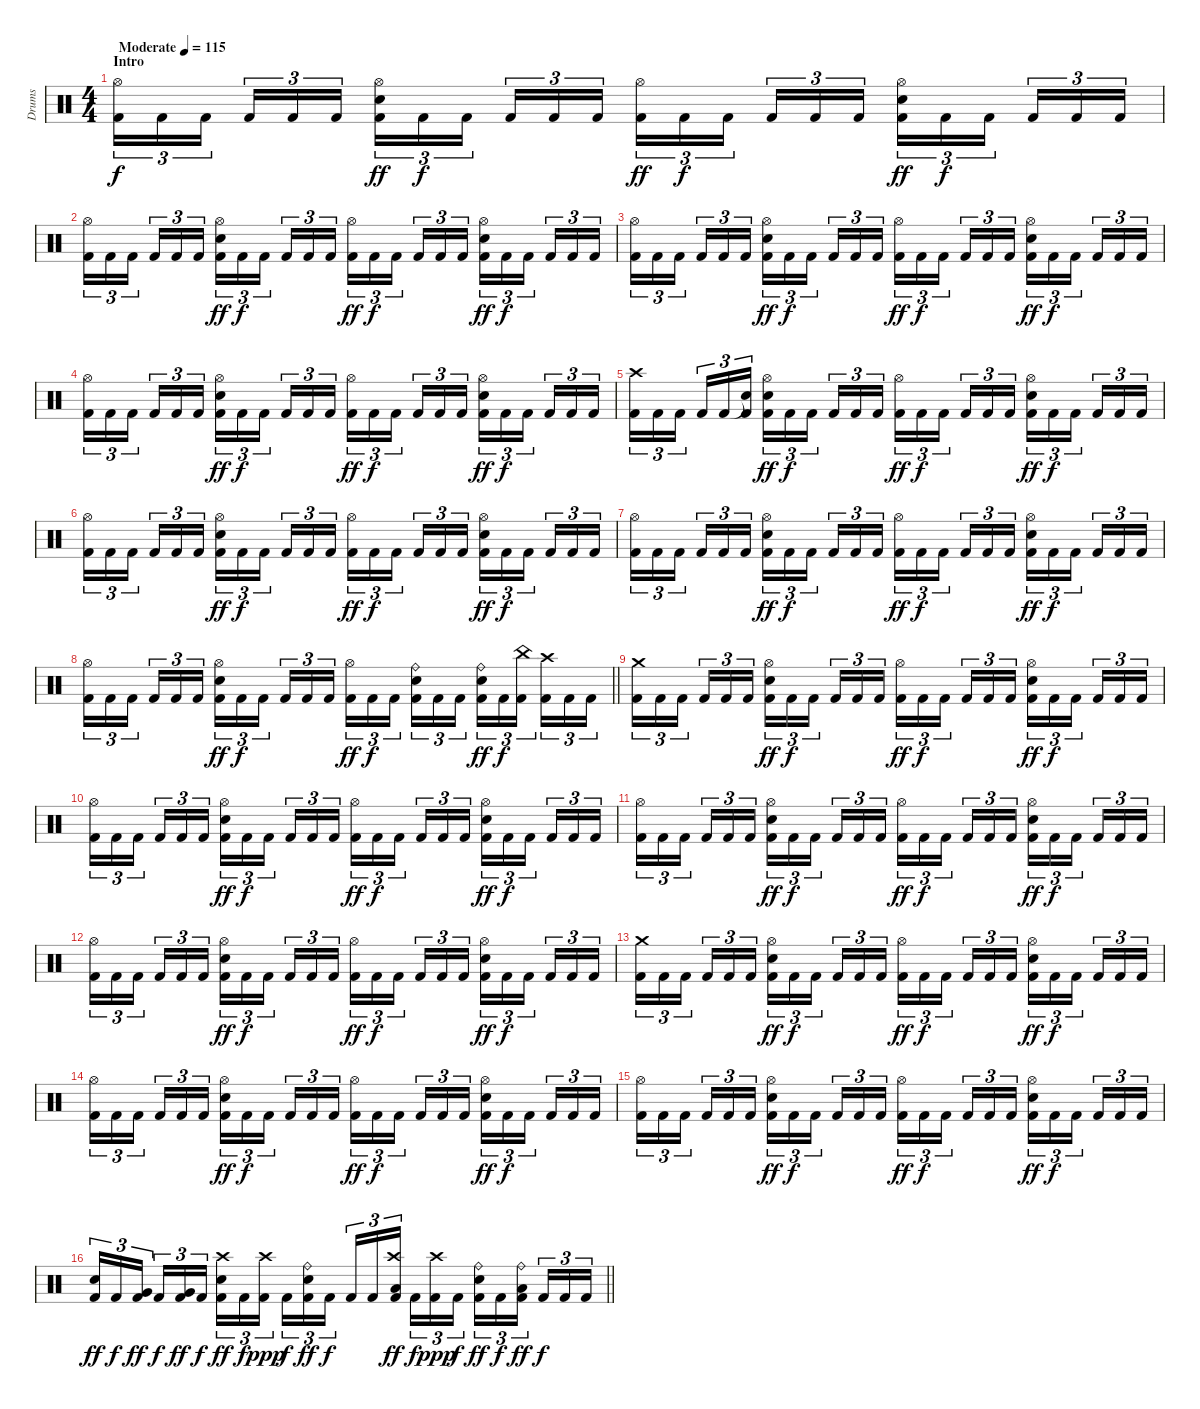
\track ("Drums" "Drums") {instrument percussion}
\staff {score}
\articulation defaults
\ts (4 4)
\section ("" "Intro")
\tempo (115 "Moderate")
\clef neutral
\ks c
("Hi-Hat (open)" "Kick (hit) 2").16{tu (3 2) dy f} "Kick (hit) 2".16{tu (3 2)} "Kick (hit) 2".16{tu (3 2) beam splitsecondary} "Kick (hit) 2".16{tu (3 2)} "Kick (hit) 2".16{tu (3 2)} "Kick (hit) 2".16{tu (3 2)} ("Hi-Hat (open)" "Electric Snare (hit)" "Kick (hit) 2").16{tu (3 2) dy ff} "Kick (hit) 2".16{tu (3 2) dy f} "Kick (hit) 2".16{tu (3 2) beam splitsecondary} "Kick (hit) 2".16{tu (3 2)} "Kick (hit) 2".16{tu (3 2)} "Kick (hit) 2".16{tu (3 2)} ("Hi-Hat (open)" "Kick (hit) 2").16{tu (3 2) dy ff} "Kick (hit) 2".16{tu (3 2) dy f} "Kick (hit) 2".16{tu (3 2) beam splitsecondary} "Kick (hit) 2".16{tu (3 2)} "Kick (hit) 2".16{tu (3 2)} "Kick (hit) 2".16{tu (3 2)} ("Hi-Hat (open)" "Electric Snare (hit)" "Kick (hit) 2").16{tu (3 2) dy ff} "Kick (hit) 2".16{tu (3 2) dy f} "Kick (hit) 2".16{tu (3 2) beam splitsecondary} "Kick (hit) 2".16{tu (3 2)} "Kick (hit) 2".16{tu (3 2)} "Kick (hit) 2".16{tu (3 2)} |
("Hi-Hat (open)" "Kick (hit) 2").16{tu (3 2)} "Kick (hit) 2".16{tu (3 2)} "Kick (hit) 2".16{tu (3 2) beam splitsecondary} "Kick (hit) 2".16{tu (3 2)} "Kick (hit) 2".16{tu (3 2)} "Kick (hit) 2".16{tu (3 2)} ("Hi-Hat (open)" "Electric Snare (hit)" "Kick (hit) 2").16{tu (3 2) dy ff} "Kick (hit) 2".16{tu (3 2) dy f} "Kick (hit) 2".16{tu (3 2) beam splitsecondary} "Kick (hit) 2".16{tu (3 2)} "Kick (hit) 2".16{tu (3 2)} "Kick (hit) 2".16{tu (3 2)} ("Hi-Hat (open)" "Kick (hit) 2").16{tu (3 2) dy ff} "Kick (hit) 2".16{tu (3 2) dy f} "Kick (hit) 2".16{tu (3 2) beam splitsecondary} "Kick (hit) 2".16{tu (3 2)} "Kick (hit) 2".16{tu (3 2)} "Kick (hit) 2".16{tu (3 2)} ("Hi-Hat (open)" "Electric Snare (hit)" "Kick (hit) 2").16{tu (3 2) dy ff} "Kick (hit) 2".16{tu (3 2) dy f} "Kick (hit) 2".16{tu (3 2) beam splitsecondary} "Kick (hit) 2".16{tu (3 2)} "Kick (hit) 2".16{tu (3 2)} "Kick (hit) 2".16{tu (3 2)} |
("Hi-Hat (open)" "Kick (hit) 2").16{tu (3 2)} "Kick (hit) 2".16{tu (3 2)} "Kick (hit) 2".16{tu (3 2) beam splitsecondary} "Kick (hit) 2".16{tu (3 2)} "Kick (hit) 2".16{tu (3 2)} "Kick (hit) 2".16{tu (3 2)} ("Hi-Hat (open)" "Electric Snare (hit)" "Kick (hit) 2").16{tu (3 2) dy ff} "Kick (hit) 2".16{tu (3 2) dy f} "Kick (hit) 2".16{tu (3 2) beam splitsecondary} "Kick (hit) 2".16{tu (3 2)} "Kick (hit) 2".16{tu (3 2)} "Kick (hit) 2".16{tu (3 2)} ("Hi-Hat (open)" "Kick (hit) 2").16{tu (3 2) dy ff} "Kick (hit) 2".16{tu (3 2) dy f} "Kick (hit) 2".16{tu (3 2) beam splitsecondary} "Kick (hit) 2".16{tu (3 2)} "Kick (hit) 2".16{tu (3 2)} "Kick (hit) 2".16{tu (3 2)} ("Hi-Hat (open)" "Electric Snare (hit)" "Kick (hit) 2").16{tu (3 2) dy ff} "Kick (hit) 2".16{tu (3 2) dy f} "Kick (hit) 2".16{tu (3 2) beam splitsecondary} "Kick (hit) 2".16{tu (3 2)} "Kick (hit) 2".16{tu (3 2)} "Kick (hit) 2".16{tu (3 2)} |
("Hi-Hat (open)" "Kick (hit) 2").16{tu (3 2)} "Kick (hit) 2".16{tu (3 2)} "Kick (hit) 2".16{tu (3 2) beam splitsecondary} "Kick (hit) 2".16{tu (3 2)} "Kick (hit) 2".16{tu (3 2)} "Kick (hit) 2".16{tu (3 2)} ("Hi-Hat (open)" "Electric Snare (hit)" "Kick (hit) 2").16{tu (3 2) dy ff} "Kick (hit) 2".16{tu (3 2) dy f} "Kick (hit) 2".16{tu (3 2) beam splitsecondary} "Kick (hit) 2".16{tu (3 2)} "Kick (hit) 2".16{tu (3 2)} "Kick (hit) 2".16{tu (3 2)} ("Hi-Hat (open)" "Kick (hit) 2").16{tu (3 2) dy ff} "Kick (hit) 2".16{tu (3 2) dy f} "Kick (hit) 2".16{tu (3 2) beam splitsecondary} "Kick (hit) 2".16{tu (3 2)} "Kick (hit) 2".16{tu (3 2)} "Kick (hit) 2".16{tu (3 2)} ("Hi-Hat (open)" "Electric Snare (hit)" "Kick (hit) 2").16{tu (3 2) dy ff} "Kick (hit) 2".16{tu (3 2) dy f} "Kick (hit) 2".16{tu (3 2) beam splitsecondary} "Kick (hit) 2".16{tu (3 2)} "Kick (hit) 2".16{tu (3 2)} "Kick (hit) 2".16{tu (3 2)} |
("Crash high (hit)" "Kick (hit) 2").16{tu (3 2)} "Kick (hit) 2".16{tu (3 2)} "Kick (hit) 2".16{tu (3 2) beam splitsecondary} "Kick (hit) 2".16{tu (3 2)} "Kick (hit) 2".16{tu (3 2)} ("Snare (hit)"{t} "Kick (hit) 2").16{tu (3 2)} ("Hi-Hat (open)" "Electric Snare (hit)" "Kick (hit) 2").16{tu (3 2) dy ff} "Kick (hit) 2".16{tu (3 2) dy f} "Kick (hit) 2".16{tu (3 2) beam splitsecondary} "Kick (hit) 2".16{tu (3 2)} "Kick (hit) 2".16{tu (3 2)} "Kick (hit) 2".16{tu (3 2)} ("Hi-Hat (open)" "Kick (hit) 2").16{tu (3 2) dy ff} "Kick (hit) 2".16{tu (3 2) dy f} "Kick (hit) 2".16{tu (3 2) beam splitsecondary} "Kick (hit) 2".16{tu (3 2)} "Kick (hit) 2".16{tu (3 2)} "Kick (hit) 2".16{tu (3 2)} ("Hi-Hat (open)" "Electric Snare (hit)" "Kick (hit) 2").16{tu (3 2) dy ff} "Kick (hit) 2".16{tu (3 2) dy f} "Kick (hit) 2".16{tu (3 2) beam splitsecondary} "Kick (hit) 2".16{tu (3 2)} "Kick (hit) 2".16{tu (3 2)} "Kick (hit) 2".16{tu (3 2)} |
("Hi-Hat (open)" "Kick (hit) 2").16{tu (3 2)} "Kick (hit) 2".16{tu (3 2)} "Kick (hit) 2".16{tu (3 2) beam splitsecondary} "Kick (hit) 2".16{tu (3 2)} "Kick (hit) 2".16{tu (3 2)} "Kick (hit) 2".16{tu (3 2)} ("Hi-Hat (open)" "Electric Snare (hit)" "Kick (hit) 2").16{tu (3 2) dy ff} "Kick (hit) 2".16{tu (3 2) dy f} "Kick (hit) 2".16{tu (3 2) beam splitsecondary} "Kick (hit) 2".16{tu (3 2)} "Kick (hit) 2".16{tu (3 2)} "Kick (hit) 2".16{tu (3 2)} ("Hi-Hat (open)" "Kick (hit) 2").16{tu (3 2) dy ff} "Kick (hit) 2".16{tu (3 2) dy f} "Kick (hit) 2".16{tu (3 2) beam splitsecondary} "Kick (hit) 2".16{tu (3 2)} "Kick (hit) 2".16{tu (3 2)} "Kick (hit) 2".16{tu (3 2)} ("Hi-Hat (open)" "Electric Snare (hit)" "Kick (hit) 2").16{tu (3 2) dy ff} "Kick (hit) 2".16{tu (3 2) dy f} "Kick (hit) 2".16{tu (3 2) beam splitsecondary} "Kick (hit) 2".16{tu (3 2)} "Kick (hit) 2".16{tu (3 2)} "Kick (hit) 2".16{tu (3 2)} |
("Hi-Hat (open)" "Kick (hit) 2").16{tu (3 2)} "Kick (hit) 2".16{tu (3 2)} "Kick (hit) 2".16{tu (3 2) beam splitsecondary} "Kick (hit) 2".16{tu (3 2)} "Kick (hit) 2".16{tu (3 2)} "Kick (hit) 2".16{tu (3 2)} ("Hi-Hat (open)" "Electric Snare (hit)" "Kick (hit) 2").16{tu (3 2) dy ff} "Kick (hit) 2".16{tu (3 2) dy f} "Kick (hit) 2".16{tu (3 2) beam splitsecondary} "Kick (hit) 2".16{tu (3 2)} "Kick (hit) 2".16{tu (3 2)} "Kick (hit) 2".16{tu (3 2)} ("Hi-Hat (open)" "Kick (hit) 2").16{tu (3 2) dy ff} "Kick (hit) 2".16{tu (3 2) dy f} "Kick (hit) 2".16{tu (3 2) beam splitsecondary} "Kick (hit) 2".16{tu (3 2)} "Kick (hit) 2".16{tu (3 2)} "Kick (hit) 2".16{tu (3 2)} ("Hi-Hat (open)" "Electric Snare (hit)" "Kick (hit) 2").16{tu (3 2) dy ff} "Kick (hit) 2".16{tu (3 2) dy f} "Kick (hit) 2".16{tu (3 2) beam splitsecondary} "Kick (hit) 2".16{tu (3 2)} "Kick (hit) 2".16{tu (3 2)} "Kick (hit) 2".16{tu (3 2)} |
\barLineRight lightlight
("Hi-Hat (open)" "Kick (hit) 2").16{tu (3 2)} "Kick (hit) 2".16{tu (3 2)} "Kick (hit) 2".16{tu (3 2) beam splitsecondary} "Kick (hit) 2".16{tu (3 2)} "Kick (hit) 2".16{tu (3 2)} "Kick (hit) 2".16{tu (3 2)} ("Hi-Hat (open)" "Electric Snare (hit)" "Kick (hit) 2").16{tu (3 2) dy ff} "Kick (hit) 2".16{tu (3 2) dy f} "Kick (hit) 2".16{tu (3 2) beam splitsecondary} "Kick (hit) 2".16{tu (3 2)} "Kick (hit) 2".16{tu (3 2)} "Kick (hit) 2".16{tu (3 2)} ("Hi-Hat (open)" "Kick (hit) 2").16{tu (3 2) dy ff} "Kick (hit) 2".16{tu (3 2) dy f} "Kick (hit) 2".16{tu (3 2) beam splitsecondary} ("Ride (bell)" "Electric Snare (hit)" "Kick (hit) 2").16{tu (3 2)} "Kick (hit) 2".16{tu (3 2)} "Kick (hit) 2".16{tu (3 2)} ("Ride (bell)" "Electric Snare (hit)" "Kick (hit) 2").16{tu (3 2) dy ff} "Kick (hit) 2".16{tu (3 2) dy f} ("China (hit)" "Kick (hit) 2").16{tu (3 2) beam splitsecondary} ("Crash high (hit)" "Kick (hit) 2").16{tu (3 2)} "Kick (hit) 2".16{tu (3 2)} "Kick (hit) 2".16{tu (3 2)} |
("Crash medium (hit)" "Kick (hit) 2").16{tu (3 2)} "Kick (hit) 2".16{tu (3 2)} "Kick (hit) 2".16{tu (3 2) beam splitsecondary} "Kick (hit) 2".16{tu (3 2)} "Kick (hit) 2".16{tu (3 2)} "Kick (hit) 2".16{tu (3 2)} ("Hi-Hat (open)" "Electric Snare (hit)" "Kick (hit) 2").16{tu (3 2) dy ff} "Kick (hit) 2".16{tu (3 2) dy f} "Kick (hit) 2".16{tu (3 2) beam splitsecondary} "Kick (hit) 2".16{tu (3 2)} "Kick (hit) 2".16{tu (3 2)} "Kick (hit) 2".16{tu (3 2)} ("Hi-Hat (open)" "Kick (hit) 2").16{tu (3 2) dy ff} "Kick (hit) 2".16{tu (3 2) dy f} "Kick (hit) 2".16{tu (3 2) beam splitsecondary} "Kick (hit) 2".16{tu (3 2)} "Kick (hit) 2".16{tu (3 2)} "Kick (hit) 2".16{tu (3 2)} ("Hi-Hat (open)" "Electric Snare (hit)" "Kick (hit) 2").16{tu (3 2) dy ff} "Kick (hit) 2".16{tu (3 2) dy f} "Kick (hit) 2".16{tu (3 2) beam splitsecondary} "Kick (hit) 2".16{tu (3 2)} "Kick (hit) 2".16{tu (3 2)} "Kick (hit) 2".16{tu (3 2)} |
("Hi-Hat (open)" "Kick (hit) 2").16{tu (3 2)} "Kick (hit) 2".16{tu (3 2)} "Kick (hit) 2".16{tu (3 2) beam splitsecondary} "Kick (hit) 2".16{tu (3 2)} "Kick (hit) 2".16{tu (3 2)} "Kick (hit) 2".16{tu (3 2)} ("Hi-Hat (open)" "Electric Snare (hit)" "Kick (hit) 2").16{tu (3 2) dy ff} "Kick (hit) 2".16{tu (3 2) dy f} "Kick (hit) 2".16{tu (3 2) beam splitsecondary} "Kick (hit) 2".16{tu (3 2)} "Kick (hit) 2".16{tu (3 2)} "Kick (hit) 2".16{tu (3 2)} ("Hi-Hat (open)" "Kick (hit) 2").16{tu (3 2) dy ff} "Kick (hit) 2".16{tu (3 2) dy f} "Kick (hit) 2".16{tu (3 2) beam splitsecondary} "Kick (hit) 2".16{tu (3 2)} "Kick (hit) 2".16{tu (3 2)} "Kick (hit) 2".16{tu (3 2)} ("Hi-Hat (open)" "Electric Snare (hit)" "Kick (hit) 2").16{tu (3 2) dy ff} "Kick (hit) 2".16{tu (3 2) dy f} "Kick (hit) 2".16{tu (3 2) beam splitsecondary} "Kick (hit) 2".16{tu (3 2)} "Kick (hit) 2".16{tu (3 2)} "Kick (hit) 2".16{tu (3 2)} |
("Hi-Hat (open)" "Kick (hit) 2").16{tu (3 2)} "Kick (hit) 2".16{tu (3 2)} "Kick (hit) 2".16{tu (3 2) beam splitsecondary} "Kick (hit) 2".16{tu (3 2)} "Kick (hit) 2".16{tu (3 2)} "Kick (hit) 2".16{tu (3 2)} ("Hi-Hat (open)" "Electric Snare (hit)" "Kick (hit) 2").16{tu (3 2) dy ff} "Kick (hit) 2".16{tu (3 2) dy f} "Kick (hit) 2".16{tu (3 2) beam splitsecondary} "Kick (hit) 2".16{tu (3 2)} "Kick (hit) 2".16{tu (3 2)} "Kick (hit) 2".16{tu (3 2)} ("Hi-Hat (open)" "Kick (hit) 2").16{tu (3 2) dy ff} "Kick (hit) 2".16{tu (3 2) dy f} "Kick (hit) 2".16{tu (3 2) beam splitsecondary} "Kick (hit) 2".16{tu (3 2)} "Kick (hit) 2".16{tu (3 2)} "Kick (hit) 2".16{tu (3 2)} ("Hi-Hat (open)" "Electric Snare (hit)" "Kick (hit) 2").16{tu (3 2) dy ff} "Kick (hit) 2".16{tu (3 2) dy f} "Kick (hit) 2".16{tu (3 2) beam splitsecondary} "Kick (hit) 2".16{tu (3 2)} "Kick (hit) 2".16{tu (3 2)} "Kick (hit) 2".16{tu (3 2)} |
("Hi-Hat (open)" "Kick (hit) 2").16{tu (3 2)} "Kick (hit) 2".16{tu (3 2)} "Kick (hit) 2".16{tu (3 2) beam splitsecondary} "Kick (hit) 2".16{tu (3 2)} "Kick (hit) 2".16{tu (3 2)} "Kick (hit) 2".16{tu (3 2)} ("Hi-Hat (open)" "Electric Snare (hit)" "Kick (hit) 2").16{tu (3 2) dy ff} "Kick (hit) 2".16{tu (3 2) dy f} "Kick (hit) 2".16{tu (3 2) beam splitsecondary} "Kick (hit) 2".16{tu (3 2)} "Kick (hit) 2".16{tu (3 2)} "Kick (hit) 2".16{tu (3 2)} ("Hi-Hat (open)" "Kick (hit) 2").16{tu (3 2) dy ff} "Kick (hit) 2".16{tu (3 2) dy f} "Kick (hit) 2".16{tu (3 2) beam splitsecondary} "Kick (hit) 2".16{tu (3 2)} "Kick (hit) 2".16{tu (3 2)} "Kick (hit) 2".16{tu (3 2)} ("Hi-Hat (open)" "Electric Snare (hit)" "Kick (hit) 2").16{tu (3 2) dy ff} "Kick (hit) 2".16{tu (3 2) dy f} "Kick (hit) 2".16{tu (3 2) beam splitsecondary} "Kick (hit) 2".16{tu (3 2)} "Kick (hit) 2".16{tu (3 2)} "Kick (hit) 2".16{tu (3 2)} |
("Crash medium (hit)" "Kick (hit) 2").16{tu (3 2)} "Kick (hit) 2".16{tu (3 2)} "Kick (hit) 2".16{tu (3 2) beam splitsecondary} "Kick (hit) 2".16{tu (3 2)} "Kick (hit) 2".16{tu (3 2)} "Kick (hit) 2".16{tu (3 2)} ("Hi-Hat (open)" "Electric Snare (hit)" "Kick (hit) 2").16{tu (3 2) dy ff} "Kick (hit) 2".16{tu (3 2) dy f} "Kick (hit) 2".16{tu (3 2) beam splitsecondary} "Kick (hit) 2".16{tu (3 2)} "Kick (hit) 2".16{tu (3 2)} "Kick (hit) 2".16{tu (3 2)} ("Hi-Hat (open)" "Kick (hit) 2").16{tu (3 2) dy ff} "Kick (hit) 2".16{tu (3 2) dy f} "Kick (hit) 2".16{tu (3 2) beam splitsecondary} "Kick (hit) 2".16{tu (3 2)} "Kick (hit) 2".16{tu (3 2)} "Kick (hit) 2".16{tu (3 2)} ("Hi-Hat (open)" "Electric Snare (hit)" "Kick (hit) 2").16{tu (3 2) dy ff} "Kick (hit) 2".16{tu (3 2) dy f} "Kick (hit) 2".16{tu (3 2) beam splitsecondary} "Kick (hit) 2".16{tu (3 2)} "Kick (hit) 2".16{tu (3 2)} "Kick (hit) 2".16{tu (3 2)} |
("Hi-Hat (open)" "Kick (hit) 2").16{tu (3 2)} "Kick (hit) 2".16{tu (3 2)} "Kick (hit) 2".16{tu (3 2) beam splitsecondary} "Kick (hit) 2".16{tu (3 2)} "Kick (hit) 2".16{tu (3 2)} "Kick (hit) 2".16{tu (3 2)} ("Hi-Hat (open)" "Electric Snare (hit)" "Kick (hit) 2").16{tu (3 2) dy ff} "Kick (hit) 2".16{tu (3 2) dy f} "Kick (hit) 2".16{tu (3 2) beam splitsecondary} "Kick (hit) 2".16{tu (3 2)} "Kick (hit) 2".16{tu (3 2)} "Kick (hit) 2".16{tu (3 2)} ("Hi-Hat (open)" "Kick (hit) 2").16{tu (3 2) dy ff} "Kick (hit) 2".16{tu (3 2) dy f} "Kick (hit) 2".16{tu (3 2) beam splitsecondary} "Kick (hit) 2".16{tu (3 2)} "Kick (hit) 2".16{tu (3 2)} "Kick (hit) 2".16{tu (3 2)} ("Hi-Hat (open)" "Electric Snare (hit)" "Kick (hit) 2").16{tu (3 2) dy ff} "Kick (hit) 2".16{tu (3 2) dy f} "Kick (hit) 2".16{tu (3 2) beam splitsecondary} "Kick (hit) 2".16{tu (3 2)} "Kick (hit) 2".16{tu (3 2)} "Kick (hit) 2".16{tu (3 2)} |
("Hi-Hat (open)" "Kick (hit) 2").16{tu (3 2)} "Kick (hit) 2".16{tu (3 2)} "Kick (hit) 2".16{tu (3 2) beam splitsecondary} "Kick (hit) 2".16{tu (3 2)} "Kick (hit) 2".16{tu (3 2)} "Kick (hit) 2".16{tu (3 2)} ("Hi-Hat (open)" "Electric Snare (hit)" "Kick (hit) 2").16{tu (3 2) dy ff} "Kick (hit) 2".16{tu (3 2) dy f} "Kick (hit) 2".16{tu (3 2) beam splitsecondary} "Kick (hit) 2".16{tu (3 2)} "Kick (hit) 2".16{tu (3 2)} "Kick (hit) 2".16{tu (3 2)} ("Hi-Hat (open)" "Kick (hit) 2").16{tu (3 2) dy ff} "Kick (hit) 2".16{tu (3 2) dy f} "Kick (hit) 2".16{tu (3 2) beam splitsecondary} "Kick (hit) 2".16{tu (3 2)} "Kick (hit) 2".16{tu (3 2)} "Kick (hit) 2".16{tu (3 2)} ("Hi-Hat (open)" "Electric Snare (hit)" "Kick (hit) 2").16{tu (3 2) dy ff} "Kick (hit) 2".16{tu (3 2) dy f} "Kick (hit) 2".16{tu (3 2) beam splitsecondary} "Kick (hit) 2".16{tu (3 2)} "Kick (hit) 2".16{tu (3 2)} "Kick (hit) 2".16{tu (3 2)} |
\barLineRight lightlight
("Electric Snare (hit)" "Kick (hit) 2").16{tu (3 2) dy ff} "Kick (hit) 2".16{tu (3 2) dy f} ("Very Low Tom (hit)" "Kick (hit) 2").16{tu (3 2) dy ff beam splitsecondary} "Kick (hit) 2".16{tu (3 2) dy f} ("Very Low Tom (hit)" "Kick (hit) 2").16{tu (3 2) dy ff} "Kick (hit) 2".16{tu (3 2) dy f} ("Crash high (hit)" "Electric Snare (hit)" "Kick (hit) 2").16{tu (3 2) dy ff} "Kick (hit) 2".16{tu (3 2) dy f} ("Crash high (hit)" "Kick (hit) 2").16{tu (3 2) dy ppp beam splitsecondary} "Kick (hit) 2".16{tu (3 2) dy f} ("Ride (bell)" "Electric Snare (hit)" "Kick (hit) 2").16{tu (3 2) dy ff} "Kick (hit) 2".16{tu (3 2) dy f} "Kick (hit) 2".16{tu (3 2)} "Kick (hit) 2".16{tu (3 2)} ("Crash high (hit)" "Low Floor Tom (hit)" "Kick (hit) 2").16{tu (3 2) dy ff beam splitsecondary} "Kick (hit) 2".16{tu (3 2) dy f} ("Crash high (hit)" "Kick (hit) 2").16{tu (3 2) dy ppp} "Kick (hit) 2".16{tu (3 2) dy f} ("Ride (bell)" "Electric Snare (hit)" "Kick (hit) 2").16{tu (3 2) dy ff} "Kick (hit) 2".16{tu (3 2) dy f} ("Ride (bell)" "Low Tom (hit)" "Kick (hit) 2").16{tu (3 2) dy ff beam splitsecondary} "Kick (hit) 2".16{tu (3 2) dy f} "Kick (hit) 2".16{tu (3 2)} "Kick (hit) 2".16{tu (3 2)}
